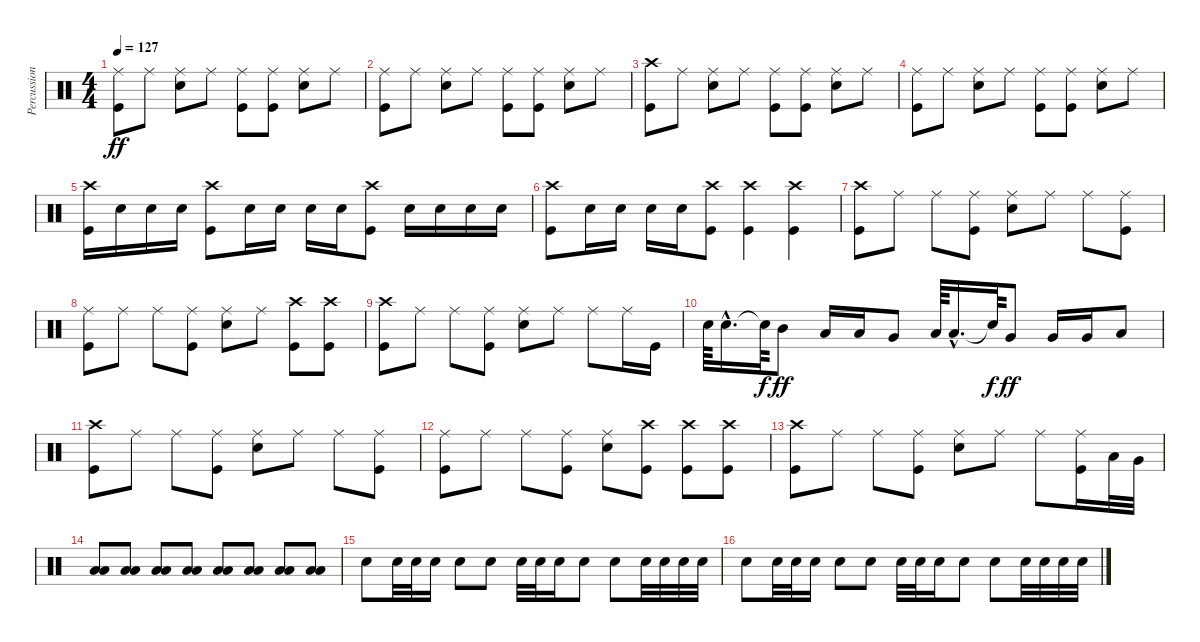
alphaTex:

\track ("Percussion" "Percussion") {instrument percussion}
\staff {score}
\articulation defaults
\ts (4 4)
\tempo 127
\clef neutral
\ks c
("Ride (middle)" "Kick (hit)").8{dy ff} "Ride (middle)".8 ("Ride (middle)" "Snare (hit) 2").8 "Ride (middle)".8 ("Ride (middle)" "Kick (hit)").8 ("Ride (middle)" "Kick (hit)").8 ("Ride (middle)" "Snare (hit) 2").8 "Ride (middle)".8 |
("Ride (middle)" "Kick (hit)").8 "Ride (middle)".8 ("Ride (middle)" "Snare (hit) 2").8 "Ride (middle)".8 ("Ride (middle)" "Kick (hit)").8 ("Ride (middle)" "Kick (hit)").8 ("Ride (middle)" "Snare (hit) 2").8 "Ride (middle)".8 |
("Crash high (hit)" "Kick (hit)").8 "Ride (middle)".8 ("Ride (middle)" "Snare (hit) 2").8 "Ride (middle)".8 ("Ride (middle)" "Kick (hit)").8 ("Ride (middle)" "Kick (hit)").8 ("Ride (middle)" "Snare (hit) 2").8 "Ride (middle)".8 |
("Ride (middle)" "Kick (hit)").8 "Ride (middle)".8 ("Ride (middle)" "Snare (hit) 2").8 "Ride (middle)".8 ("Ride (middle)" "Kick (hit)").8 ("Ride (middle)" "Kick (hit)").8 ("Ride (middle)" "Snare (hit) 2").8 "Ride (middle)".8 |
("Crash high (hit)" "Kick (hit)").16 "Snare (hit) 2".16 "Snare (hit) 2".16 "Snare (hit) 2".16 ("Crash high (hit)" "Kick (hit)").8 "Snare (hit) 2".16 "Snare (hit) 2".16 "Snare (hit) 2".16 "Snare (hit) 2".16 ("Crash high (hit)" "Kick (hit)").8 "Snare (hit) 2".16 "Snare (hit) 2".16 "Snare (hit) 2".16 "Snare (hit) 2".16 |
("Crash high (hit)" "Kick (hit)").8 "Snare (hit) 2".16 "Snare (hit) 2".16 "Snare (hit) 2".16 "Snare (hit) 2".16 ("Crash high (hit)" "Kick (hit)").8 ("Crash high (hit)" "Kick (hit)").4 ("Crash high (hit)" "Kick (hit)").4 |
("Crash high (hit)" "Kick (hit)").8 "Ride (middle)".8 "Ride (middle)".8 ("Ride (middle)" "Kick (hit)").8 ("Ride (middle)" "Snare (hit) 2").8 "Ride (middle)".8 "Ride (middle)".8 ("Ride (middle)" "Kick (hit)").8 |
("Ride (middle)" "Kick (hit)").8 "Ride (middle)".8 "Ride (middle)".8 ("Ride (middle)" "Kick (hit)").8 ("Ride (middle)" "Snare (hit) 2").8 "Ride (middle)".8 ("Crash high (hit)" "Kick (hit)").8 ("Crash high (hit)" "Kick (hit)").8 |
("Crash high (hit)" "Kick (hit)").8 "Ride (middle)".8 "Ride (middle)".8 ("Ride (middle)" "Kick (hit)").8 ("Ride (middle)" "Snare (hit) 2").8 "Ride (middle)".8 "Ride (middle)".8 "Ride (middle)".16 "Kick (hit)".16 |
"Snare (hit) 2".64 "Snare (hit) 2"{hac}.16{d} "Snare (hit)"{t}.64{dy f} "Mid Tom (hit)".8{dy ff} "Low Tom (hit)".16 "Low Tom (hit)".16 "Very Low Tom (hit)".8 "Low Tom (hit)".64 "Low Tom (hit)"{hac}.16{d} "Snare (hit)"{t}.64{dy f} "Very Low Tom (hit)".8{dy ff} "Very Low Tom (hit)".16 "Very Low Tom (hit)".16 "Low Floor Tom (hit)".8 |
("Crash high (hit)" "Kick (hit)").8 "Ride (middle)".8 "Ride (middle)".8 ("Ride (middle)" "Kick (hit)").8 ("Ride (middle)" "Snare (hit) 2").8 "Ride (middle)".8 "Ride (middle)".8 ("Ride (middle)" "Kick (hit)").8 |
("Ride (middle)" "Kick (hit)").8 "Ride (middle)".8 "Ride (middle)".8 ("Ride (middle)" "Kick (hit)").8 ("Ride (middle)" "Snare (hit) 2").8 ("Crash high (hit)" "Kick (hit)").8 ("Crash high (hit)" "Kick (hit)").8 ("Crash high (hit)" "Kick (hit)").8 |
("Crash high (hit)" "Kick (hit)").8 "Ride (middle)".8 "Ride (middle)".8 ("Ride (middle)" "Kick (hit)").8 ("Ride (middle)" "Snare (hit) 2").8 "Ride (middle)".8 "Ride (middle)".8 ("Ride (middle)" "Kick (hit)").16 "Low Tom (hit)".32 "Very Low Tom (hit)".32 |
("Low Tom (hit)" "Low Floor Tom (hit)").8 ("Low Tom (hit)" "Low Floor Tom (hit)").8 ("Low Tom (hit)" "Low Floor Tom (hit)").8 ("Low Tom (hit)" "Low Floor Tom (hit)").8 ("Low Tom (hit)" "Low Floor Tom (hit)").8 ("Low Tom (hit)" "Low Floor Tom (hit)").8 ("Low Tom (hit)" "Low Floor Tom (hit)").8 ("Low Tom (hit)" "Low Floor Tom (hit)").8 |
"Snare (hit) 2".8 "Snare (hit) 2".32 "Snare (hit) 2".32 "Snare (hit) 2".16 "Snare (hit) 2".8 "Snare (hit) 2".8 "Snare (hit) 2".32 "Snare (hit) 2".32 "Snare (hit) 2".16 "Snare (hit) 2".8 "Snare (hit) 2".8 "Snare (hit) 2".32 "Snare (hit) 2".32 "Snare (hit) 2".32 "Snare (hit) 2".32 |
"Snare (hit) 2".8 "Snare (hit) 2".32 "Snare (hit) 2".32 "Snare (hit) 2".16 "Snare (hit) 2".8 "Snare (hit) 2".8 "Snare (hit) 2".32 "Snare (hit) 2".32 "Snare (hit) 2".16 "Snare (hit) 2".8 "Snare (hit) 2".8 "Snare (hit) 2".32 "Snare (hit) 2".32 "Snare (hit) 2".32 "Snare (hit) 2".32
